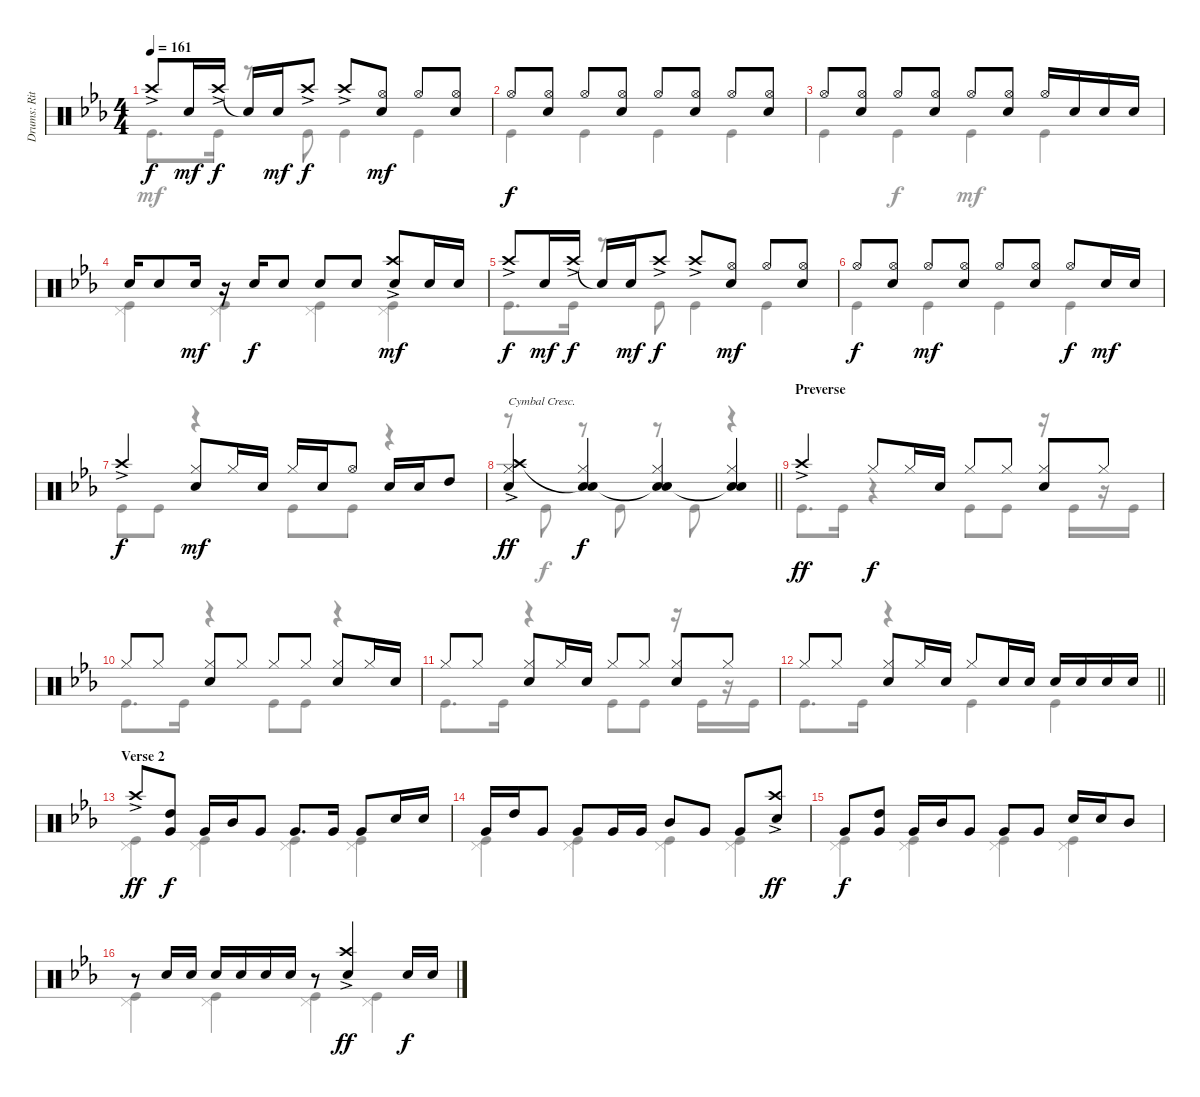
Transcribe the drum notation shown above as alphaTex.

\track ("Drums: Ritsu Tianaka" "Drums: Rit") {instrument percussion}
\staff {score}
\articulation defaults
\voice
\ts (4 4)
\tempo 161
\clef neutral
\ks eb "Crash high (hit)"{ac}.8{dy f} "Snare (hit) 2".16{dy mf} "Crash high (hit)"{ac}.16{dy f} "Snare (hit)"{t}.16 "Snare (hit) 2".16{dy mf} "Crash high (hit)"{ac}.8{dy f} "Crash high (hit)"{ac}.8
("Hi-Hat (open)" "Snare (hit) 2").8{dy mf} "Hi-Hat (open)".8 ("Hi-Hat (open)" "Snare (hit) 2").8 |
"Hi-Hat (open)".8{dy f} ("Hi-Hat (open)" "Snare (hit) 2").8 "Hi-Hat (open)".8 ("Hi-Hat (open)" "Snare (hit) 2").8 "Hi-Hat (open)".8 ("Hi-Hat (open)" "Snare (hit) 2").8 "Hi-Hat (open)".8 ("Hi-Hat (open)" "Snare (hit) 2").8 |
"Hi-Hat (open)".8 ("Hi-Hat (open)" "Snare (hit) 2").8 "Hi-Hat (open)".8 ("Hi-Hat (open)" "Snare (hit) 2").8 "Hi-Hat (open)".8 ("Hi-Hat (open)" "Snare (hit) 2").8 "Hi-Hat (open)".16 "Snare (hit) 2".16 "Snare (hit) 2".16 "Snare (hit) 2".16 |
"Snare (hit) 2".16 "Snare (hit) 2".8 "Snare (hit) 2".16{dy mf} r.16 "Snare (hit) 2".16{dy f} "Snare (hit) 2".8 "Snare (hit) 2".8 "Snare (hit) 2".8 ("Crash high (hit)"{ac} "Snare (hit) 2").8{dy mf} "Snare (hit) 2".16 "Snare (hit) 2".16 |
"Crash high (hit)"{ac}.8{dy f} "Snare (hit) 2".16{dy mf} "Crash high (hit)"{ac}.16{dy f} "Snare (hit)"{t}.16 "Snare (hit) 2".16{dy mf} "Crash high (hit)"{ac}.8{dy f} "Crash high (hit)"{ac}.8 ("Hi-Hat (open)" "Snare (hit) 2").8{dy mf} "Hi-Hat (open)".8 ("Hi-Hat (open)" "Snare (hit) 2").8 |
"Hi-Hat (open)".8{dy f} ("Hi-Hat (open)" "Snare (hit) 2").8 "Hi-Hat (open)".8{dy mf} ("Hi-Hat (open)" "Snare (hit) 2").8 "Hi-Hat (open)".8 ("Hi-Hat (open)" "Snare (hit) 2").8 "Hi-Hat (open)".8{dy f} "Snare (hit) 2".16{dy mf} "Snare (hit) 2".16 |
"Crash high (hit)"{ac}.4{dy f} ("Hi-Hat (closed)" "Snare (hit) 2").8{dy mf} "Hi-Hat (closed)".16 "Snare (hit) 2".16 "Hi-Hat (closed)".16 "Snare (hit) 2".16 "Hi-Hat (open)".8 "Snare (hit) 2".16 "Snare (hit) 2".16 "High Tom (hit)".8 |
\barLineRight lightlight
("Crash high (hit)"{ac} "Hi-Hat (closed)" "Snare (hit) 2").4{txt "Cymbal Cresc." dy ff} ("Snare (hit)"{t} "Hi-Hat (closed)" "Snare (hit) 2").4{dy f} ("Snare (hit)"{t} "Hi-Hat (closed)" "Snare (hit) 2").4 ("Snare (hit)"{t} "Hi-Hat (closed)" "Snare (hit) 2").4 |
\section ("" "Preverse")
"Crash high (hit)"{ac}.4{dy ff} "Hi-Hat (closed)".8{dy f} "Hi-Hat (closed)".16 "Snare (hit) 2".16 "Hi-Hat (closed)".8 "Hi-Hat (closed)".8 ("Hi-Hat (closed)" "Snare (hit) 2").8 "Hi-Hat (closed)".8 |
"Hi-Hat (closed)".8 "Hi-Hat (closed)".8 ("Hi-Hat (closed)" "Snare (hit) 2").8 "Hi-Hat (closed)".8 "Hi-Hat (closed)".8 "Hi-Hat (closed)".8 ("Hi-Hat (closed)" "Snare (hit) 2").8 "Hi-Hat (closed)".16 "Snare (hit) 2".16 |
"Hi-Hat (closed)".8 "Hi-Hat (closed)".8 ("Hi-Hat (closed)" "Snare (hit) 2").8 "Hi-Hat (closed)".16 "Snare (hit) 2".16 "Hi-Hat (closed)".8 "Hi-Hat (closed)".8 ("Hi-Hat (closed)" "Snare (hit) 2").8 "Hi-Hat (closed)".8 |
\barLineRight lightlight "Hi-Hat (closed)".8 "Hi-Hat (closed)".8
("Hi-Hat (closed)" "Snare (hit) 2").8 "Hi-Hat (closed)".16 "Snare (hit) 2".16 "Hi-Hat (closed)".8 "Snare (hit) 2".16 "Snare (hit) 2".16 "Snare (hit) 2".16 "Snare (hit) 2".16 "Snare (hit) 2".16 "Snare (hit) 2".16 |
\section ("" "Verse 2")
"Crash high (hit)"{ac}.8{dy ff} ("High Tom (hit)" "Very Low Tom (hit)").8{dy f} "Very Low Tom (hit)".16 "Mid Tom (hit)".16 "Very Low Tom (hit)".8 "Very Low Tom (hit)".8{d} "Very Low Tom (hit)".16 "Very Low Tom (hit)".8 "Snare (hit) 2".16 "Snare (hit) 2".16 |
"Very Low Tom (hit)".16 "High Tom (hit)".16 "Very Low Tom (hit)".8 "Very Low Tom (hit)".8 "Very Low Tom (hit)".16 "Very Low Tom (hit)".16 "Mid Tom (hit)".8 "Very Low Tom (hit)".8 "Very Low Tom (hit)".8 ("Crash high (hit)"{ac} "Snare (hit) 2").8{dy ff} |
"Very Low Tom (hit)".8{dy f} ("High Tom (hit)" "Very Low Tom (hit)").8 "Very Low Tom (hit)".16 "Mid Tom (hit)".16 "Very Low Tom (hit)".8 "Very Low Tom (hit)".8 "Very Low Tom (hit)".8 "Snare (hit) 2".16 "Snare (hit) 2".16 "Mid Tom (hit)".8 |
r.8 "Snare (hit) 2".16 "Snare (hit) 2".16 "Snare (hit) 2".16 "Snare (hit) 2".16 "Snare (hit) 2".16 "Snare (hit) 2".16 r.8 ("Crash high (hit)"{ac} "Snare (hit) 2").4{dy ff} "Snare (hit) 2".16{dy f} "Snare (hit) 2".16
\voice
\clef neutral
\ottava regular
\simile none
\ks eb "Kick (hit)".8{d dy mf} "Kick (hit)".16
r.8 "Kick (hit)".8 "Kick (hit)".4 "Kick (hit)".4 |
"Kick (hit)".4 "Kick (hit)".4 "Kick (hit)".4 "Kick (hit)".4 |
"Kick (hit)".4 "Kick (hit)".4{dy f} "Kick (hit)".4{dy mf} "Kick (hit)".4 |
("Pedal Hi-Hat (hit)" "Kick (hit)").4 ("Pedal Hi-Hat (hit)" "Kick (hit)").4 ("Pedal Hi-Hat (hit)" "Kick (hit)").4 ("Pedal Hi-Hat (hit)" "Kick (hit)").4 |
"Kick (hit)".8{d} "Kick (hit)".16 r.8 "Kick (hit)".8 "Kick (hit)".4 "Kick (hit)".4 |
"Kick (hit)".4 "Kick (hit)".4 "Kick (hit)".4 "Kick (hit)".4 |
"Kick (hit)".8 "Kick (hit)".8 r.4 "Kick (hit)".8 "Kick (hit)".8 r.4 |
\barLineRight lightlight
r.8 "Kick (hit)".8{dy f} r.8 "Kick (hit)".8 r.8 "Kick (hit)".8 r.4 |
"Kick (hit)".8{d} "Kick (hit)".16 r.4 "Kick (hit)".8 "Kick (hit)".8 r.16 "Kick (hit)".16 r.16 "Kick (hit)".16 |
"Kick (hit)".8{d} "Kick (hit)".16 r.4 "Kick (hit)".8 "Kick (hit)".8 r.4 |
"Kick (hit)".8{d} "Kick (hit)".16 r.4 "Kick (hit)".8 "Kick (hit)".8 r.16 "Kick (hit)".16 r.16 "Kick (hit)".16 |
\barLineRight lightlight "Kick (hit)".8{d} "Kick (hit)".16
r.4 "Kick (hit)".4 "Kick (hit)".4 |
("Pedal Hi-Hat (hit)" "Kick (hit)").4 ("Pedal Hi-Hat (hit)" "Kick (hit)").4 ("Pedal Hi-Hat (hit)" "Kick (hit)").4 ("Pedal Hi-Hat (hit)" "Kick (hit)").4 |
("Pedal Hi-Hat (hit)" "Kick (hit)").4 ("Pedal Hi-Hat (hit)" "Kick (hit)").4 ("Pedal Hi-Hat (hit)" "Kick (hit)").4 ("Pedal Hi-Hat (hit)" "Kick (hit)").4 |
("Pedal Hi-Hat (hit)" "Kick (hit)").4 ("Pedal Hi-Hat (hit)" "Kick (hit)").4 ("Pedal Hi-Hat (hit)" "Kick (hit)").4 ("Pedal Hi-Hat (hit)" "Kick (hit)").4 |
("Pedal Hi-Hat (hit)" "Kick (hit)").4 ("Pedal Hi-Hat (hit)" "Kick (hit)").4 ("Pedal Hi-Hat (hit)" "Kick (hit)").4 ("Pedal Hi-Hat (hit)" "Kick (hit)").4
